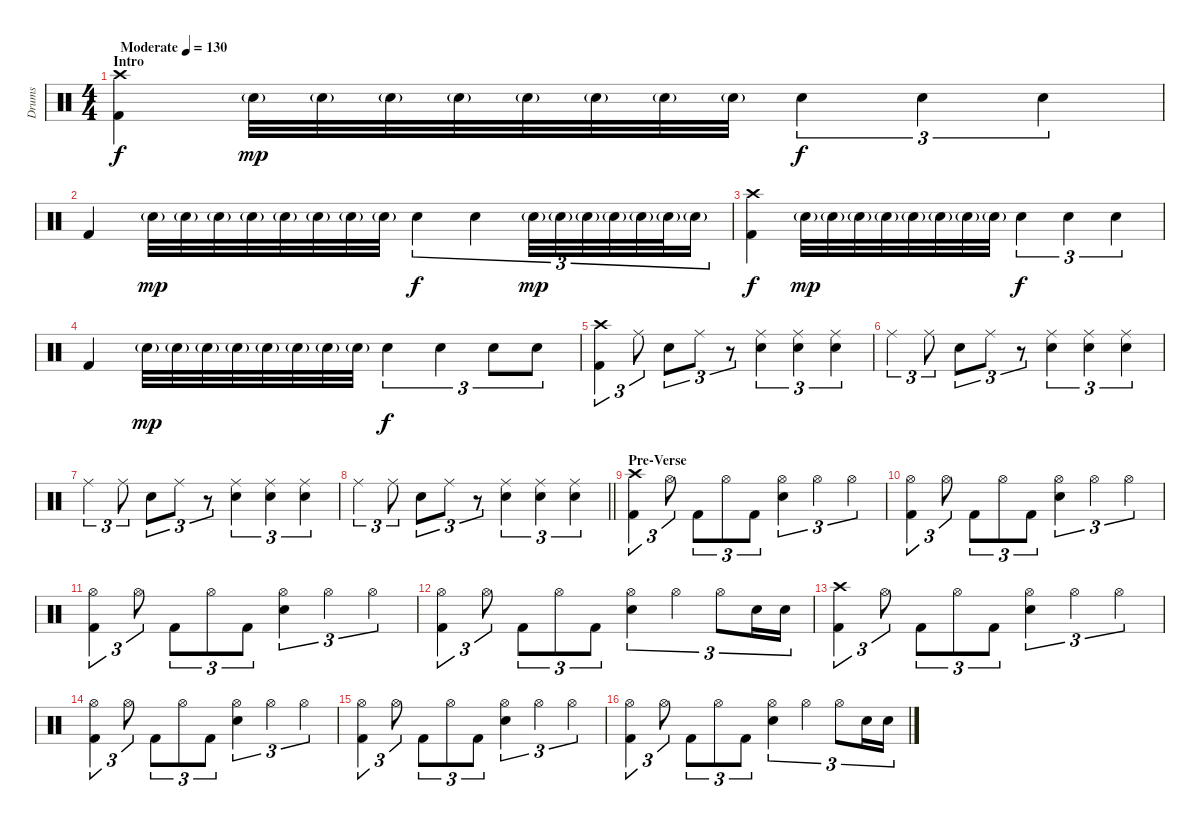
\track ("Drums" "Drums") {instrument percussion}
\staff {score}
\articulation defaults
\ts (4 4)
\section ("" "Intro")
\tempo (130 "Moderate")
\clef neutral
\ks c
("Crash high (hit)" "Kick (hit) 2").4{dy f} "Snare (hit) 2"{g}.32{dy mp} "Snare (hit) 2"{g}.32 "Snare (hit) 2"{g}.32 "Snare (hit) 2"{g}.32 "Snare (hit) 2"{g}.32 "Snare (hit) 2"{g}.32 "Snare (hit) 2"{g}.32 "Snare (hit) 2"{g}.32 "Snare (hit) 2".4{tu (3 2) dy f} "Snare (hit) 2".4{tu (3 2)} "Snare (hit) 2".4{tu (3 2)} |
"Kick (hit) 2".4 "Snare (hit) 2"{g}.32{dy mp} "Snare (hit) 2"{g}.32 "Snare (hit) 2"{g}.32 "Snare (hit) 2"{g}.32 "Snare (hit) 2"{g}.32 "Snare (hit) 2"{g}.32 "Snare (hit) 2"{g}.32 "Snare (hit) 2"{g}.32 "Snare (hit) 2".4{tu (3 2) dy f} "Snare (hit) 2".4{tu (3 2)} "Snare (hit) 2"{g}.32{tu (3 2) dy mp} "Snare (hit) 2"{g}.32{tu (3 2)} "Snare (hit) 2"{g}.32{tu (3 2)} "Snare (hit) 2"{g}.32{tu (3 2)} "Snare (hit) 2"{g}.32{tu (3 2)} "Snare (hit) 2"{g}.32{tu (3 2)} "Snare (hit) 2"{g}.16{tu (3 2)} |
("Crash high (hit)" "Kick (hit) 2").4{dy f} "Snare (hit) 2"{g}.32{dy mp} "Snare (hit) 2"{g}.32 "Snare (hit) 2"{g}.32 "Snare (hit) 2"{g}.32 "Snare (hit) 2"{g}.32 "Snare (hit) 2"{g}.32 "Snare (hit) 2"{g}.32 "Snare (hit) 2"{g}.32 "Snare (hit) 2".4{tu (3 2) dy f} "Snare (hit) 2".4{tu (3 2)} "Snare (hit) 2".4{tu (3 2)} |
"Kick (hit) 2".4 "Snare (hit) 2"{g}.32{dy mp} "Snare (hit) 2"{g}.32 "Snare (hit) 2"{g}.32 "Snare (hit) 2"{g}.32 "Snare (hit) 2"{g}.32 "Snare (hit) 2"{g}.32 "Snare (hit) 2"{g}.32 "Snare (hit) 2"{g}.32 "Snare (hit) 2".4{tu (3 2) dy f} "Snare (hit) 2".4{tu (3 2)} "Snare (hit) 2".8{tu (3 2)} "Snare (hit) 2".8{tu (3 2)} |
("Crash high (hit)" "Kick (hit) 2").4{tu (3 2)} "Ride (middle)".8{tu (3 2)} "Electric Snare (hit)".8{tu (3 2)} "Ride (middle)".8{tu (3 2)} r.8{tu (3 2)} ("Ride (middle)" "Electric Snare (hit)").4{tu (3 2)} ("Ride (middle)" "Electric Snare (hit)").4{tu (3 2)} ("Ride (middle)" "Electric Snare (hit)").4{tu (3 2)} |
"Ride (middle)".4{tu (3 2)} "Ride (middle)".8{tu (3 2)} "Electric Snare (hit)".8{tu (3 2)} "Ride (middle)".8{tu (3 2)} r.8{tu (3 2)} ("Ride (middle)" "Electric Snare (hit)").4{tu (3 2)} ("Ride (middle)" "Electric Snare (hit)").4{tu (3 2)} ("Ride (middle)" "Electric Snare (hit)").4{tu (3 2)} |
"Ride (middle)".4{tu (3 2)} "Ride (middle)".8{tu (3 2)} "Electric Snare (hit)".8{tu (3 2)} "Ride (middle)".8{tu (3 2)} r.8{tu (3 2)} ("Ride (middle)" "Electric Snare (hit)").4{tu (3 2)} ("Ride (middle)" "Electric Snare (hit)").4{tu (3 2)} ("Ride (middle)" "Electric Snare (hit)").4{tu (3 2)} |
\barLineRight lightlight "Ride (middle)".4{tu (3 2)} "Ride (middle)".8{tu (3 2)} "Electric Snare (hit)".8{tu (3 2)} "Ride (middle)".8{tu (3 2)}
r.8{tu (3 2)} ("Ride (middle)" "Electric Snare (hit)").4{tu (3 2)} ("Ride (middle)" "Electric Snare (hit)").4{tu (3 2)} ("Ride (middle)" "Electric Snare (hit)").4{tu (3 2)} |
\section ("" "Pre-Verse")
("Crash high (hit)" "Kick (hit) 2").4{tu (3 2)} "Hi-Hat (open)".8{tu (3 2)} "Kick (hit) 2".8{tu (3 2)} "Hi-Hat (open)".8{tu (3 2)} "Kick (hit) 2".8{tu (3 2)} ("Hi-Hat (open)" "Electric Snare (hit)").4{tu (3 2)} "Hi-Hat (open)".4{tu (3 2)} "Hi-Hat (open)".4{tu (3 2)} |
("Hi-Hat (open)" "Kick (hit) 2").4{tu (3 2)} "Hi-Hat (open)".8{tu (3 2)} "Kick (hit) 2".8{tu (3 2)} "Hi-Hat (open)".8{tu (3 2)} "Kick (hit) 2".8{tu (3 2)} ("Hi-Hat (open)" "Electric Snare (hit)").4{tu (3 2)} "Hi-Hat (open)".4{tu (3 2)} "Hi-Hat (open)".4{tu (3 2)} |
("Hi-Hat (open)" "Kick (hit) 2").4{tu (3 2)} "Hi-Hat (open)".8{tu (3 2)} "Kick (hit) 2".8{tu (3 2)} "Hi-Hat (open)".8{tu (3 2)} "Kick (hit) 2".8{tu (3 2)} ("Hi-Hat (open)" "Electric Snare (hit)").4{tu (3 2)} "Hi-Hat (open)".4{tu (3 2)} "Hi-Hat (open)".4{tu (3 2)} |
("Hi-Hat (open)" "Kick (hit) 2").4{tu (3 2)} "Hi-Hat (open)".8{tu (3 2)} "Kick (hit) 2".8{tu (3 2)} "Hi-Hat (open)".8{tu (3 2)} "Kick (hit) 2".8{tu (3 2)} ("Hi-Hat (open)" "Electric Snare (hit)").4{tu (3 2)} "Hi-Hat (open)".4{tu (3 2)} "Hi-Hat (open)".8{tu (3 2)} "Electric Snare (hit)".16{tu (3 2)} "Electric Snare (hit)".16{tu (3 2)} |
("Crash high (hit)" "Kick (hit) 2").4{tu (3 2)} "Hi-Hat (open)".8{tu (3 2)} "Kick (hit) 2".8{tu (3 2)} "Hi-Hat (open)".8{tu (3 2)} "Kick (hit) 2".8{tu (3 2)} ("Hi-Hat (open)" "Electric Snare (hit)").4{tu (3 2)} "Hi-Hat (open)".4{tu (3 2)} "Hi-Hat (open)".4{tu (3 2)} |
("Hi-Hat (open)" "Kick (hit) 2").4{tu (3 2)} "Hi-Hat (open)".8{tu (3 2)} "Kick (hit) 2".8{tu (3 2)} "Hi-Hat (open)".8{tu (3 2)} "Kick (hit) 2".8{tu (3 2)} ("Hi-Hat (open)" "Electric Snare (hit)").4{tu (3 2)} "Hi-Hat (open)".4{tu (3 2)} "Hi-Hat (open)".4{tu (3 2)} |
("Hi-Hat (open)" "Kick (hit) 2").4{tu (3 2)} "Hi-Hat (open)".8{tu (3 2)} "Kick (hit) 2".8{tu (3 2)} "Hi-Hat (open)".8{tu (3 2)} "Kick (hit) 2".8{tu (3 2)} ("Hi-Hat (open)" "Electric Snare (hit)").4{tu (3 2)} "Hi-Hat (open)".4{tu (3 2)} "Hi-Hat (open)".4{tu (3 2)} |
("Hi-Hat (open)" "Kick (hit) 2").4{tu (3 2)} "Hi-Hat (open)".8{tu (3 2)} "Kick (hit) 2".8{tu (3 2)} "Hi-Hat (open)".8{tu (3 2)} "Kick (hit) 2".8{tu (3 2)} ("Hi-Hat (open)" "Electric Snare (hit)").4{tu (3 2)} "Hi-Hat (open)".4{tu (3 2)} "Hi-Hat (open)".8{tu (3 2)} "Electric Snare (hit)".16{tu (3 2)} "Electric Snare (hit)".16{tu (3 2)}
